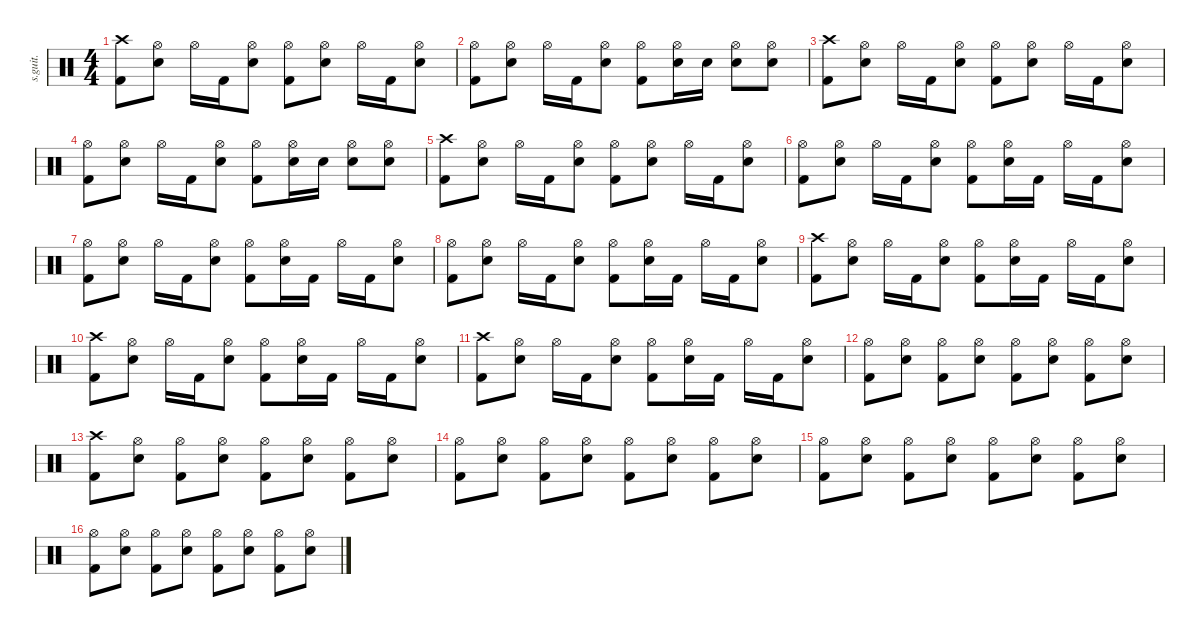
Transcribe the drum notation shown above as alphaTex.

\defaultSystemsLayout 4
\hideDynamics
\bracketExtendMode nobrackets
\track ("" "s.guit.") {instrument percussion}
\staff {score}
\articulation defaults
\ts (4 4)
\tempo (160 hide)
\clef neutral
\ks c
("Crash high (hit)" "Kick (hit) 2").8{dy f} ("Hi-Hat (open)" "Snare (hit) 2").8 "Hi-Hat (open)".16 "Kick (hit) 2".16 ("Hi-Hat (open)" "Snare (hit) 2").8 ("Hi-Hat (open)" "Kick (hit) 2").8 ("Hi-Hat (open)" "Snare (hit) 2").8 "Hi-Hat (open)".16 "Kick (hit) 2".16 ("Hi-Hat (open)" "Snare (hit) 2").8 |
("Hi-Hat (open)" "Kick (hit) 2").8 ("Hi-Hat (open)" "Snare (hit) 2").8 "Hi-Hat (open)".16 "Kick (hit) 2".16 ("Hi-Hat (open)" "Snare (hit) 2").8 ("Hi-Hat (open)" "Kick (hit) 2").8 ("Hi-Hat (open)" "Snare (hit) 2").16 "Snare (hit) 2".16 ("Hi-Hat (open)" "Snare (hit) 2").8 ("Hi-Hat (open)" "Snare (hit) 2").8 |
("Crash high (hit)" "Kick (hit) 2").8 ("Hi-Hat (open)" "Snare (hit) 2").8 "Hi-Hat (open)".16 "Kick (hit) 2".16 ("Hi-Hat (open)" "Snare (hit) 2").8 ("Hi-Hat (open)" "Kick (hit) 2").8 ("Hi-Hat (open)" "Snare (hit) 2").8 "Hi-Hat (open)".16 "Kick (hit) 2".16 ("Hi-Hat (open)" "Snare (hit) 2").8 |
("Hi-Hat (open)" "Kick (hit) 2").8 ("Hi-Hat (open)" "Snare (hit) 2").8 "Hi-Hat (open)".16 "Kick (hit) 2".16 ("Hi-Hat (open)" "Snare (hit) 2").8 ("Hi-Hat (open)" "Kick (hit) 2").8 ("Hi-Hat (open)" "Snare (hit) 2").16 "Snare (hit) 2".16 ("Hi-Hat (open)" "Snare (hit) 2").8 ("Hi-Hat (open)" "Snare (hit) 2").8 |
("Crash high (hit)" "Kick (hit) 2").8 ("Hi-Hat (open)" "Snare (hit) 2").8 "Hi-Hat (open)".16 "Kick (hit) 2".16 ("Hi-Hat (open)" "Snare (hit) 2").8 ("Hi-Hat (open)" "Kick (hit) 2").8 ("Hi-Hat (open)" "Snare (hit) 2").8 "Hi-Hat (open)".16 "Kick (hit) 2".16 ("Hi-Hat (open)" "Snare (hit) 2").8 |
("Hi-Hat (open)" "Kick (hit) 2").8 ("Hi-Hat (open)" "Snare (hit) 2").8 "Hi-Hat (open)".16 "Kick (hit) 2".16 ("Hi-Hat (open)" "Snare (hit) 2").8 ("Hi-Hat (open)" "Kick (hit) 2").8 ("Hi-Hat (open)" "Snare (hit) 2").16 "Kick (hit) 2".16 "Hi-Hat (open)".16 "Kick (hit) 2".16 ("Hi-Hat (open)" "Snare (hit) 2").8 |
("Hi-Hat (open)" "Kick (hit) 2").8 ("Hi-Hat (open)" "Snare (hit) 2").8 "Hi-Hat (open)".16 "Kick (hit) 2".16 ("Hi-Hat (open)" "Snare (hit) 2").8 ("Hi-Hat (open)" "Kick (hit) 2").8 ("Hi-Hat (open)" "Snare (hit) 2").16 "Kick (hit) 2".16 "Hi-Hat (open)".16 "Kick (hit) 2".16 ("Hi-Hat (open)" "Snare (hit) 2").8 |
("Hi-Hat (open)" "Kick (hit) 2").8 ("Hi-Hat (open)" "Snare (hit) 2").8 "Hi-Hat (open)".16 "Kick (hit) 2".16 ("Hi-Hat (open)" "Snare (hit) 2").8 ("Hi-Hat (open)" "Kick (hit) 2").8 ("Hi-Hat (open)" "Snare (hit) 2").16 "Kick (hit) 2".16 "Hi-Hat (open)".16 "Kick (hit) 2".16 ("Hi-Hat (open)" "Snare (hit) 2").8 |
("Crash high (hit)" "Kick (hit) 2").8 ("Hi-Hat (open)" "Snare (hit) 2").8 "Hi-Hat (open)".16 "Kick (hit) 2".16 ("Hi-Hat (open)" "Snare (hit) 2").8 ("Hi-Hat (open)" "Kick (hit) 2").8 ("Hi-Hat (open)" "Snare (hit) 2").16 "Kick (hit) 2".16 "Hi-Hat (open)".16 "Kick (hit) 2".16 ("Hi-Hat (open)" "Snare (hit) 2").8 |
("Crash high (hit)" "Kick (hit) 2").8 ("Hi-Hat (open)" "Snare (hit) 2").8 "Hi-Hat (open)".16 "Kick (hit) 2".16 ("Hi-Hat (open)" "Snare (hit) 2").8 ("Hi-Hat (open)" "Kick (hit) 2").8 ("Hi-Hat (open)" "Snare (hit) 2").16 "Kick (hit) 2".16 "Hi-Hat (open)".16 "Kick (hit) 2".16 ("Hi-Hat (open)" "Snare (hit) 2").8 |
("Crash high (hit)" "Kick (hit) 2").8 ("Hi-Hat (open)" "Snare (hit) 2").8 "Hi-Hat (open)".16 "Kick (hit) 2".16 ("Hi-Hat (open)" "Snare (hit) 2").8 ("Hi-Hat (open)" "Kick (hit) 2").8 ("Hi-Hat (open)" "Snare (hit) 2").16 "Kick (hit) 2".16 "Hi-Hat (open)".16 "Kick (hit) 2".16 ("Hi-Hat (open)" "Snare (hit) 2").8 |
("Hi-Hat (open)" "Kick (hit) 2").8 ("Hi-Hat (open)" "Snare (hit) 2").8 ("Hi-Hat (open)" "Kick (hit) 2").8 ("Hi-Hat (open)" "Snare (hit) 2").8 ("Hi-Hat (open)" "Kick (hit) 2").8 ("Hi-Hat (open)" "Snare (hit) 2").8 ("Hi-Hat (open)" "Kick (hit) 2").8 ("Hi-Hat (open)" "Snare (hit) 2").8 |
("Crash high (hit)" "Kick (hit) 2").8 ("Hi-Hat (open)" "Snare (hit) 2").8 ("Hi-Hat (open)" "Kick (hit) 2").8 ("Hi-Hat (open)" "Snare (hit) 2").8 ("Hi-Hat (open)" "Kick (hit) 2").8 ("Hi-Hat (open)" "Snare (hit) 2").8 ("Hi-Hat (open)" "Kick (hit) 2").8 ("Hi-Hat (open)" "Snare (hit) 2").8 |
("Hi-Hat (open)" "Kick (hit) 2").8 ("Hi-Hat (open)" "Snare (hit) 2").8 ("Hi-Hat (open)" "Kick (hit) 2").8 ("Hi-Hat (open)" "Snare (hit) 2").8 ("Hi-Hat (open)" "Kick (hit) 2").8 ("Hi-Hat (open)" "Snare (hit) 2").8 ("Hi-Hat (open)" "Kick (hit) 2").8 ("Hi-Hat (open)" "Snare (hit) 2").8 |
("Hi-Hat (open)" "Kick (hit) 2").8 ("Hi-Hat (open)" "Snare (hit) 2").8 ("Hi-Hat (open)" "Kick (hit) 2").8 ("Hi-Hat (open)" "Snare (hit) 2").8 ("Hi-Hat (open)" "Kick (hit) 2").8 ("Hi-Hat (open)" "Snare (hit) 2").8 ("Hi-Hat (open)" "Kick (hit) 2").8 ("Hi-Hat (open)" "Snare (hit) 2").8 |
("Hi-Hat (open)" "Kick (hit) 2").8 ("Hi-Hat (open)" "Snare (hit) 2").8 ("Hi-Hat (open)" "Kick (hit) 2").8 ("Hi-Hat (open)" "Snare (hit) 2").8 ("Hi-Hat (open)" "Kick (hit) 2").8 ("Hi-Hat (open)" "Snare (hit) 2").8 ("Hi-Hat (open)" "Kick (hit) 2").8 ("Hi-Hat (open)" "Snare (hit) 2").8
